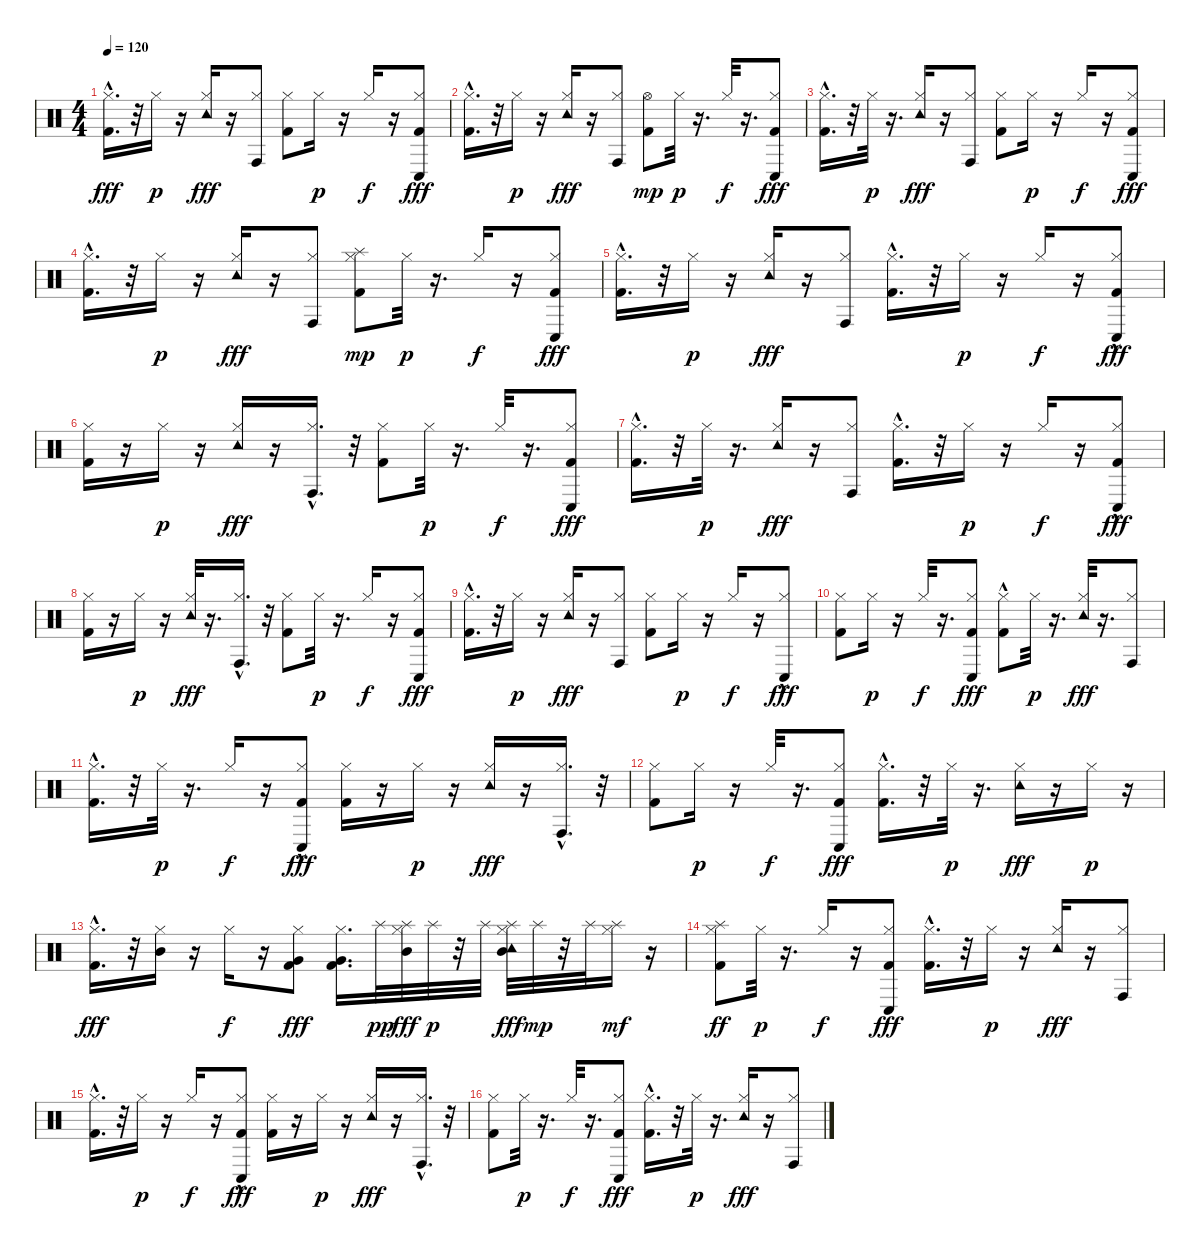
\track "" {instrument percussion}
\staff {score}
\articulation defaults
\ts (4 4)
\tempo 120
\clef neutral
\ks c
("Kick (hit) 2"{hac} "Hi-Hat (closed)").16{d dy fff} r.32 "Hi-Hat (closed)".16{dy p} r.16 ("Hi-Hat (closed)" "Tambourine (hit)").16{dy fff} r.16 ("Hi-Hat (closed)" "Conga high (hit)").8 ("Kick (hit) 2" "Hi-Hat (closed)").8 "Hi-Hat (closed)".16{dy p} r.16 "Hi-Hat (closed)".16{dy f} r.16 ("Kick (hit) 2" "Hi-Hat (closed)" "Conga low (hit)").8{dy fff} |
("Kick (hit) 2"{hac} "Hi-Hat (closed)").16{d} r.32 "Hi-Hat (closed)".16{dy p} r.16 ("Hi-Hat (closed)" "Tambourine (hit)").16{dy fff} r.16 ("Hi-Hat (closed)" "Conga high (hit)").8 ("Kick (hit) 2" "Hi-Hat (open)").8{dy mp} "Hi-Hat (closed)".32{dy p} r.16{d} "Hi-Hat (closed)".32{dy f} r.16{d} ("Kick (hit) 2" "Hi-Hat (closed)" "Conga low (hit)").8{dy fff} |
("Kick (hit) 2"{hac} "Hi-Hat (closed)").16{d} r.32 "Hi-Hat (closed)".32{dy p} r.16{d} ("Hi-Hat (closed)" "Tambourine (hit)").16{dy fff} r.16 ("Hi-Hat (closed)" "Conga high (hit)").8 ("Kick (hit) 2" "Hi-Hat (closed)").8 "Hi-Hat (closed)".16{dy p} r.16 "Hi-Hat (closed)".16{dy f} r.16 ("Kick (hit) 2" "Hi-Hat (closed)" "Conga low (hit)").8{dy fff} |
("Kick (hit) 2"{hac} "Hi-Hat (closed)").16{d} r.32 "Hi-Hat (closed)".16{dy p} r.16 ("Hi-Hat (closed)" "Tambourine (hit)").16{dy fff} r.16 ("Hi-Hat (closed)" "Conga high (hit)").8 ("Kick (hit) 2" "Hi-Hat (closed)" "Splash (hit)").8{dy mp} "Hi-Hat (closed)".32{dy p} r.16{d} "Hi-Hat (closed)".16{dy f} r.16 ("Kick (hit) 2" "Hi-Hat (closed)" "Conga low (hit)").8{dy fff} |
("Kick (hit) 2"{hac} "Hi-Hat (closed)").16{d} r.32 "Hi-Hat (closed)".16{dy p} r.16 ("Hi-Hat (closed)" "Tambourine (hit)").16{dy fff} r.16 ("Hi-Hat (closed)" "Conga high (hit)").8 ("Kick (hit) 2"{hac} "Hi-Hat (closed)").16{d} r.32 "Hi-Hat (closed)".16{dy p} r.16 "Hi-Hat (closed)".16{dy f} r.16 ("Kick (hit) 2" "Hi-Hat (closed)" "Conga low (hit)"{hac}).8{dy fff} |
("Kick (hit) 2" "Hi-Hat (closed)").16 r.16 "Hi-Hat (closed)".16{dy p} r.16 ("Hi-Hat (closed)" "Tambourine (hit)").16{dy fff} r.16 ("Hi-Hat (closed)" "Conga high (hit)"{hac}).16{d} r.32 ("Kick (hit) 2" "Hi-Hat (closed)").8 "Hi-Hat (closed)".32{dy p} r.16{d} "Hi-Hat (closed)".32{dy f} r.16{d} ("Kick (hit) 2" "Hi-Hat (closed)" "Conga low (hit)").8{dy fff} |
("Kick (hit) 2"{hac} "Hi-Hat (closed)").16{d} r.32 "Hi-Hat (closed)".32{dy p} r.16{d} ("Hi-Hat (closed)" "Tambourine (hit)").16{dy fff} r.16 ("Hi-Hat (closed)" "Conga high (hit)").8 ("Kick (hit) 2"{hac} "Hi-Hat (closed)").16{d} r.32 "Hi-Hat (closed)".16{dy p} r.16 "Hi-Hat (closed)".16{dy f} r.16 ("Kick (hit) 2" "Hi-Hat (closed)" "Conga low (hit)"{hac}).8{dy fff} |
("Kick (hit) 2" "Hi-Hat (closed)").16 r.16 "Hi-Hat (closed)".16{dy p} r.16 ("Hi-Hat (closed)" "Tambourine (hit)").32{dy fff} r.16{d} ("Hi-Hat (closed)" "Conga high (hit)"{hac}).16{d} r.32 ("Kick (hit) 2" "Hi-Hat (closed)").8 "Hi-Hat (closed)".32{dy p} r.16{d} "Hi-Hat (closed)".16{dy f} r.16 ("Kick (hit) 2" "Hi-Hat (closed)" "Conga low (hit)").8{dy fff} |
("Kick (hit) 2"{hac} "Hi-Hat (closed)").16{d} r.32 "Hi-Hat (closed)".16{dy p} r.16 ("Hi-Hat (closed)" "Tambourine (hit)").16{dy fff} r.16 ("Hi-Hat (closed)" "Conga high (hit)").8 ("Kick (hit) 2" "Hi-Hat (closed)").8 "Hi-Hat (closed)".16{dy p} r.16 "Hi-Hat (closed)".16{dy f} r.16 ("Hi-Hat (closed)" "Conga low (hit)"{hac}).8{dy fff} |
("Kick (hit) 2" "Hi-Hat (closed)").8 "Hi-Hat (closed)".16{dy p} r.16 "Hi-Hat (closed)".32{dy f} r.16{d} ("Kick (hit) 2" "Hi-Hat (closed)" "Conga low (hit)").8{dy fff} ("Kick (hit) 2"{hac} "Hi-Hat (closed)").8 "Hi-Hat (closed)".32{dy p} r.16{d} ("Hi-Hat (closed)" "Tambourine (hit)").32{dy fff} r.16{d} ("Hi-Hat (closed)" "Conga high (hit)").8 |
("Kick (hit) 2"{hac} "Hi-Hat (closed)").16{d} r.32 "Hi-Hat (closed)".32{dy p} r.16{d} "Hi-Hat (closed)".16{dy f} r.16 ("Kick (hit) 2" "Hi-Hat (closed)" "Conga low (hit)"{hac}).8{dy fff} ("Kick (hit) 2" "Hi-Hat (closed)").16 r.16 "Hi-Hat (closed)".16{dy p} r.16 ("Hi-Hat (closed)" "Tambourine (hit)").16{dy fff} r.16 ("Hi-Hat (closed)" "Conga high (hit)"{hac}).16{d} r.32 |
("Kick (hit) 2" "Hi-Hat (closed)").8 "Hi-Hat (closed)".16{dy p} r.16 "Hi-Hat (closed)".32{dy f} r.16{d} ("Kick (hit) 2" "Hi-Hat (closed)" "Conga low (hit)").8{dy fff} ("Kick (hit) 2"{hac} "Hi-Hat (closed)").16{d} r.32 "Hi-Hat (closed)".32{dy p} r.16{d} ("Hi-Hat (closed)" "Tambourine (hit)").16{dy fff} r.16 "Hi-Hat (closed)".16{dy p} r.16 |
("Kick (hit) 2"{hac} "Hi-Hat (closed)").16{d dy fff} r.32 ("Hi-Hat (closed)" "Mid Tom (hit)").16 r.16 "Hi-Hat (closed)".16{dy f} r.16 ("Kick (hit) 2" "Hi-Hat (closed)" "Very Low Tom (hit)").8{dy fff} ("Kick (hit) 2" "Hi-Hat (closed)" "Very Low Tom (hit)").16{d} "Splash (hit)".32{dy pp} ("Splash (hit)" "Hi-Hat (closed)" "Mid Tom (hit)").32{dy fff} "Splash (hit)".32{dy p} r.32 "Splash (hit)".32 ("Splash (hit)" "Hi-Hat (closed)" "Mid Tom (hit)" "Tambourine (hit)").32{dy fff} "Splash (hit)".32{dy mp} r.32 "Splash (hit)".32 ("Hi-Hat (closed)" "Splash (hit)").16{dy mf} r.16 |
("Kick (hit) 2" "Hi-Hat (closed)" "Splash (hit)").8{dy ff} "Hi-Hat (closed)".32{dy p} r.16{d} "Hi-Hat (closed)".16{dy f} r.16 ("Kick (hit) 2" "Hi-Hat (closed)" "Conga low (hit)").8{dy fff} ("Kick (hit) 2"{hac} "Hi-Hat (closed)").16{d} r.32 "Hi-Hat (closed)".16{dy p} r.16 ("Hi-Hat (closed)" "Tambourine (hit)").16{dy fff} r.16 ("Hi-Hat (closed)" "Conga high (hit)").8 |
("Kick (hit) 2"{hac} "Hi-Hat (closed)").16{d} r.32 "Hi-Hat (closed)".16{dy p} r.16 "Hi-Hat (closed)".16{dy f} r.16 ("Kick (hit) 2" "Hi-Hat (closed)" "Conga low (hit)"{hac}).8{dy fff} ("Kick (hit) 2" "Hi-Hat (closed)").16 r.16 "Hi-Hat (closed)".16{dy p} r.16 ("Hi-Hat (closed)" "Tambourine (hit)").16{dy fff} r.16 ("Hi-Hat (closed)" "Conga high (hit)"{hac}).16{d} r.32 |
("Kick (hit) 2" "Hi-Hat (closed)").8 "Hi-Hat (closed)".32{dy p} r.16{d} "Hi-Hat (closed)".32{dy f} r.16{d} ("Kick (hit) 2" "Hi-Hat (closed)" "Conga low (hit)").8{dy fff} ("Kick (hit) 2"{hac} "Hi-Hat (closed)").16{d} r.32 "Hi-Hat (closed)".32{dy p} r.16{d} ("Hi-Hat (closed)" "Tambourine (hit)").16{dy fff} r.16 ("Hi-Hat (closed)" "Conga high (hit)").8
